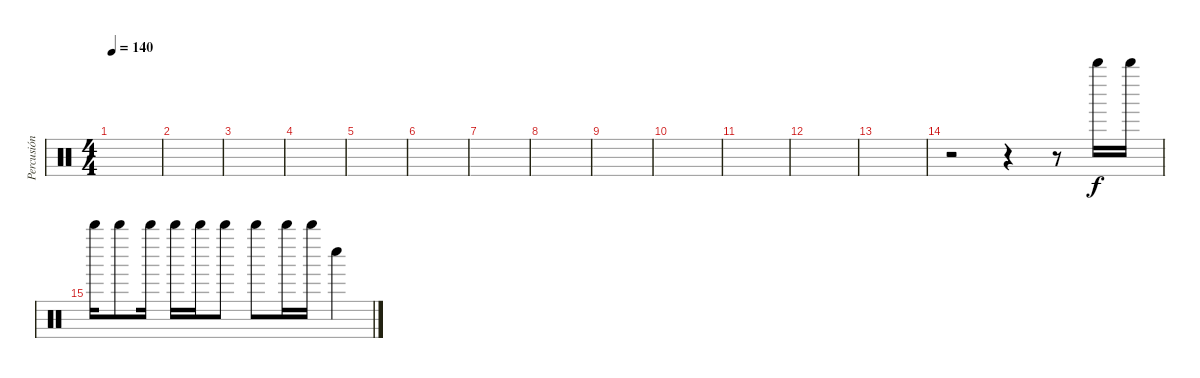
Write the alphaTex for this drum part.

\track ("Percusión Fredy Caldas" "Percusión ") {instrument percussion}
\staff {score}
\articulation defaults
\ts (4 4)
\tempo 140
\clef neutral
\ks c
|
|
|
|
|
|
|
|
|
|
|
|
|
r.2 r.4 r.8 "Whistle high (hit)".16 "Whistle high (hit)".16 |
"Whistle high (hit)".16 "Whistle high (hit)".8 "Whistle high (hit)".16 "Whistle high (hit)".16 "Whistle high (hit)".16 "Whistle high (hit)".8 "Whistle high (hit)".8 "Whistle high (hit)".16 "Whistle high (hit)".16 "Whistle low (hit)".4
